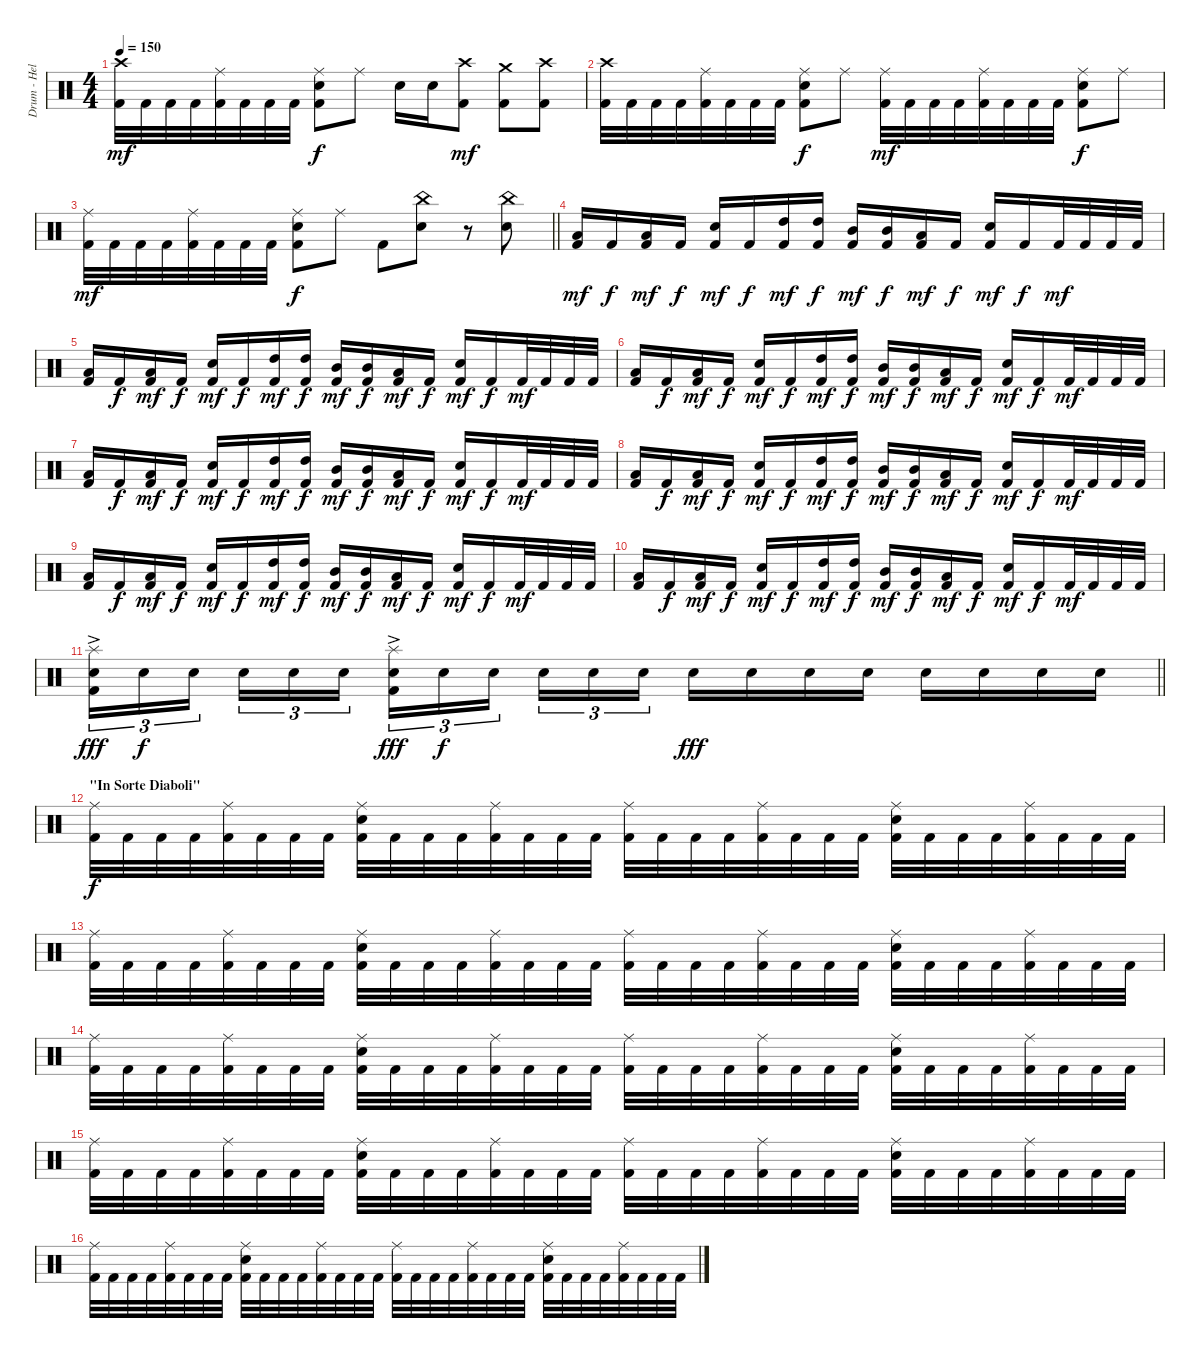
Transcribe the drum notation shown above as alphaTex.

\track ("Drum - Hellhammer" "Drum - Hel") {instrument percussion}
\staff {score}
\articulation defaults
\ts (4 4)
\tempo 150
\clef neutral
\ks c
("Crash high (hit)" "Kick (hit) 2").32{dy mf} "Kick (hit) 2".32 "Kick (hit) 2".32 "Kick (hit) 2".32 ("Ride (middle)" "Kick (hit) 2").32 "Kick (hit) 2".32 "Kick (hit) 2".32 "Kick (hit) 2".32 ("Ride (middle)" "Electric Snare (hit)" "Kick (hit) 2").8{dy f} "Ride (middle)".8 "Electric Snare (hit)".16 "Electric Snare (hit)".16 ("Crash high (hit)" "Kick (hit) 2").8{dy mf} ("Crash medium (hit)" "Kick (hit) 2").8 ("Crash high (hit)" "Kick (hit) 2").8 |
("Crash high (hit)" "Kick (hit) 2").32 "Kick (hit) 2".32 "Kick (hit) 2".32 "Kick (hit) 2".32 ("Ride (middle)" "Kick (hit) 2").32 "Kick (hit) 2".32 "Kick (hit) 2".32 "Kick (hit) 2".32 ("Ride (middle)" "Electric Snare (hit)" "Kick (hit) 2").8{dy f} "Ride (middle)".8 ("Ride (middle)" "Kick (hit) 2").32{dy mf} "Kick (hit) 2".32 "Kick (hit) 2".32 "Kick (hit) 2".32 ("Ride (middle)" "Kick (hit) 2").32 "Kick (hit) 2".32 "Kick (hit) 2".32 "Kick (hit) 2".32 ("Ride (middle)" "Electric Snare (hit)" "Kick (hit) 2").8{dy f} "Ride (middle)".8 |
\barLineRight lightlight
("Ride (middle)" "Kick (hit) 2").32{dy mf} "Kick (hit) 2".32 "Kick (hit) 2".32 "Kick (hit) 2".32 ("Ride (middle)" "Kick (hit) 2").32 "Kick (hit) 2".32 "Kick (hit) 2".32 "Kick (hit) 2".32 ("Ride (middle)" "Electric Snare (hit)" "Kick (hit) 2").8{dy f} "Ride (middle)".8 "Kick (hit) 2".8 ("China (hit)" "Electric Snare (hit)").8 r.8 ("China (hit)" "Electric Snare (hit)").8 |
\section ("" "")
("Low Tom (hit)" "Kick (hit) 2").16{dy mf} "Kick (hit) 2".16{dy f} ("Low Tom (hit)" "Kick (hit) 2").16{dy mf} "Kick (hit) 2".16{dy f} ("Electric Snare (hit)" "Kick (hit) 2").16{dy mf} "Kick (hit) 2".16{dy f} ("High Tom (hit)" "Kick (hit) 2").16{dy mf} ("High Tom (hit)" "Kick (hit) 2").16{dy f} ("Mid Tom (hit)" "Kick (hit) 2").16{dy mf} ("Mid Tom (hit)" "Kick (hit) 2").16{dy f} ("Low Tom (hit)" "Kick (hit) 2").16{dy mf} "Kick (hit) 2".16{dy f} ("Electric Snare (hit)" "Kick (hit) 2").16{dy mf} "Kick (hit) 2".16{dy f} "Kick (hit) 2".32{dy mf} "Kick (hit) 2".32 "Kick (hit) 2".32 "Kick (hit) 2".32 |
("Low Tom (hit)" "Kick (hit) 2").16 "Kick (hit) 2".16{dy f} ("Low Tom (hit)" "Kick (hit) 2").16{dy mf} "Kick (hit) 2".16{dy f} ("Electric Snare (hit)" "Kick (hit) 2").16{dy mf} "Kick (hit) 2".16{dy f} ("High Tom (hit)" "Kick (hit) 2").16{dy mf} ("High Tom (hit)" "Kick (hit) 2").16{dy f} ("Mid Tom (hit)" "Kick (hit) 2").16{dy mf} ("Mid Tom (hit)" "Kick (hit) 2").16{dy f} ("Low Tom (hit)" "Kick (hit) 2").16{dy mf} "Kick (hit) 2".16{dy f} ("Electric Snare (hit)" "Kick (hit) 2").16{dy mf} "Kick (hit) 2".16{dy f} "Kick (hit) 2".32{dy mf} "Kick (hit) 2".32 "Kick (hit) 2".32 "Kick (hit) 2".32 |
("Low Tom (hit)" "Kick (hit) 2").16 "Kick (hit) 2".16{dy f} ("Low Tom (hit)" "Kick (hit) 2").16{dy mf} "Kick (hit) 2".16{dy f} ("Electric Snare (hit)" "Kick (hit) 2").16{dy mf} "Kick (hit) 2".16{dy f} ("High Tom (hit)" "Kick (hit) 2").16{dy mf} ("High Tom (hit)" "Kick (hit) 2").16{dy f} ("Mid Tom (hit)" "Kick (hit) 2").16{dy mf} ("Mid Tom (hit)" "Kick (hit) 2").16{dy f} ("Low Tom (hit)" "Kick (hit) 2").16{dy mf} "Kick (hit) 2".16{dy f} ("Electric Snare (hit)" "Kick (hit) 2").16{dy mf} "Kick (hit) 2".16{dy f} "Kick (hit) 2".32{dy mf} "Kick (hit) 2".32 "Kick (hit) 2".32 "Kick (hit) 2".32 |
("Low Tom (hit)" "Kick (hit) 2").16 "Kick (hit) 2".16{dy f} ("Low Tom (hit)" "Kick (hit) 2").16{dy mf} "Kick (hit) 2".16{dy f} ("Electric Snare (hit)" "Kick (hit) 2").16{dy mf} "Kick (hit) 2".16{dy f} ("High Tom (hit)" "Kick (hit) 2").16{dy mf} ("High Tom (hit)" "Kick (hit) 2").16{dy f} ("Mid Tom (hit)" "Kick (hit) 2").16{dy mf} ("Mid Tom (hit)" "Kick (hit) 2").16{dy f} ("Low Tom (hit)" "Kick (hit) 2").16{dy mf} "Kick (hit) 2".16{dy f} ("Electric Snare (hit)" "Kick (hit) 2").16{dy mf} "Kick (hit) 2".16{dy f} "Kick (hit) 2".32{dy mf} "Kick (hit) 2".32 "Kick (hit) 2".32 "Kick (hit) 2".32 |
("Low Tom (hit)" "Kick (hit) 2").16 "Kick (hit) 2".16{dy f} ("Low Tom (hit)" "Kick (hit) 2").16{dy mf} "Kick (hit) 2".16{dy f} ("Electric Snare (hit)" "Kick (hit) 2").16{dy mf} "Kick (hit) 2".16{dy f} ("High Tom (hit)" "Kick (hit) 2").16{dy mf} ("High Tom (hit)" "Kick (hit) 2").16{dy f} ("Mid Tom (hit)" "Kick (hit) 2").16{dy mf} ("Mid Tom (hit)" "Kick (hit) 2").16{dy f} ("Low Tom (hit)" "Kick (hit) 2").16{dy mf} "Kick (hit) 2".16{dy f} ("Electric Snare (hit)" "Kick (hit) 2").16{dy mf} "Kick (hit) 2".16{dy f} "Kick (hit) 2".32{dy mf} "Kick (hit) 2".32 "Kick (hit) 2".32 "Kick (hit) 2".32 |
("Low Tom (hit)" "Kick (hit) 2").16 "Kick (hit) 2".16{dy f} ("Low Tom (hit)" "Kick (hit) 2").16{dy mf} "Kick (hit) 2".16{dy f} ("Electric Snare (hit)" "Kick (hit) 2").16{dy mf} "Kick (hit) 2".16{dy f} ("High Tom (hit)" "Kick (hit) 2").16{dy mf} ("High Tom (hit)" "Kick (hit) 2").16{dy f} ("Mid Tom (hit)" "Kick (hit) 2").16{dy mf} ("Mid Tom (hit)" "Kick (hit) 2").16{dy f} ("Low Tom (hit)" "Kick (hit) 2").16{dy mf} "Kick (hit) 2".16{dy f} ("Electric Snare (hit)" "Kick (hit) 2").16{dy mf} "Kick (hit) 2".16{dy f} "Kick (hit) 2".32{dy mf} "Kick (hit) 2".32 "Kick (hit) 2".32 "Kick (hit) 2".32 |
("Low Tom (hit)" "Kick (hit) 2").16 "Kick (hit) 2".16{dy f} ("Low Tom (hit)" "Kick (hit) 2").16{dy mf} "Kick (hit) 2".16{dy f} ("Electric Snare (hit)" "Kick (hit) 2").16{dy mf} "Kick (hit) 2".16{dy f} ("High Tom (hit)" "Kick (hit) 2").16{dy mf} ("High Tom (hit)" "Kick (hit) 2").16{dy f} ("Mid Tom (hit)" "Kick (hit) 2").16{dy mf} ("Mid Tom (hit)" "Kick (hit) 2").16{dy f} ("Low Tom (hit)" "Kick (hit) 2").16{dy mf} "Kick (hit) 2".16{dy f} ("Electric Snare (hit)" "Kick (hit) 2").16{dy mf} "Kick (hit) 2".16{dy f} "Kick (hit) 2".32{dy mf} "Kick (hit) 2".32 "Kick (hit) 2".32 "Kick (hit) 2".32 |
\barLineRight lightlight
("Splash (hit)" "Electric Snare (hit)"{ac} "Kick (hit) 2").16{tu (3 2) dy fff} "Electric Snare (hit)".16{tu (3 2) dy f} "Electric Snare (hit)".16{tu (3 2)} "Electric Snare (hit)".16{tu (3 2)} "Electric Snare (hit)".16{tu (3 2)} "Electric Snare (hit)".16{tu (3 2)} ("Splash (hit)" "Electric Snare (hit)"{ac} "Kick (hit) 2").16{tu (3 2) dy fff} "Electric Snare (hit)".16{tu (3 2) dy f} "Electric Snare (hit)".16{tu (3 2)} "Electric Snare (hit)".16{tu (3 2)} "Electric Snare (hit)".16{tu (3 2)} "Electric Snare (hit)".16{tu (3 2)} "Electric Snare (hit)".16{dy fff} "Electric Snare (hit)".16 "Electric Snare (hit)".16 "Electric Snare (hit)".16 "Electric Snare (hit)".16 "Electric Snare (hit)".16 "Electric Snare (hit)".16 "Electric Snare (hit)".16 |
\section ("" "\"In Sorte Diaboli\"")
("Ride (middle)" "Kick (hit) 2").32{dy f} "Kick (hit) 2".32 "Kick (hit) 2".32 "Kick (hit) 2".32 ("Ride (middle)" "Kick (hit) 2").32 "Kick (hit) 2".32 "Kick (hit) 2".32 "Kick (hit) 2".32 ("Ride (middle)" "Electric Snare (hit)" "Kick (hit) 2").32 "Kick (hit) 2".32 "Kick (hit) 2".32 "Kick (hit) 2".32 ("Ride (middle)" "Kick (hit) 2").32 "Kick (hit) 2".32 "Kick (hit) 2".32 "Kick (hit) 2".32 ("Ride (middle)" "Kick (hit) 2").32 "Kick (hit) 2".32 "Kick (hit) 2".32 "Kick (hit) 2".32 ("Ride (middle)" "Kick (hit) 2").32 "Kick (hit) 2".32 "Kick (hit) 2".32 "Kick (hit) 2".32 ("Ride (middle)" "Electric Snare (hit)" "Kick (hit) 2").32 "Kick (hit) 2".32 "Kick (hit) 2".32 "Kick (hit) 2".32 ("Ride (middle)" "Kick (hit) 2").32 "Kick (hit) 2".32 "Kick (hit) 2".32 "Kick (hit) 2".32 |
("Ride (middle)" "Kick (hit) 2").32 "Kick (hit) 2".32 "Kick (hit) 2".32 "Kick (hit) 2".32 ("Ride (middle)" "Kick (hit) 2").32 "Kick (hit) 2".32 "Kick (hit) 2".32 "Kick (hit) 2".32 ("Ride (middle)" "Electric Snare (hit)" "Kick (hit) 2").32 "Kick (hit) 2".32 "Kick (hit) 2".32 "Kick (hit) 2".32 ("Ride (middle)" "Kick (hit) 2").32 "Kick (hit) 2".32 "Kick (hit) 2".32 "Kick (hit) 2".32 ("Ride (middle)" "Kick (hit) 2").32 "Kick (hit) 2".32 "Kick (hit) 2".32 "Kick (hit) 2".32 ("Ride (middle)" "Kick (hit) 2").32 "Kick (hit) 2".32 "Kick (hit) 2".32 "Kick (hit) 2".32 ("Ride (middle)" "Electric Snare (hit)" "Kick (hit) 2").32 "Kick (hit) 2".32 "Kick (hit) 2".32 "Kick (hit) 2".32 ("Ride (middle)" "Kick (hit) 2").32 "Kick (hit) 2".32 "Kick (hit) 2".32 "Kick (hit) 2".32 |
("Ride (middle)" "Kick (hit) 2").32 "Kick (hit) 2".32 "Kick (hit) 2".32 "Kick (hit) 2".32 ("Ride (middle)" "Kick (hit) 2").32 "Kick (hit) 2".32 "Kick (hit) 2".32 "Kick (hit) 2".32 ("Ride (middle)" "Electric Snare (hit)" "Kick (hit) 2").32 "Kick (hit) 2".32 "Kick (hit) 2".32 "Kick (hit) 2".32 ("Ride (middle)" "Kick (hit) 2").32 "Kick (hit) 2".32 "Kick (hit) 2".32 "Kick (hit) 2".32 ("Ride (middle)" "Kick (hit) 2").32 "Kick (hit) 2".32 "Kick (hit) 2".32 "Kick (hit) 2".32 ("Ride (middle)" "Kick (hit) 2").32 "Kick (hit) 2".32 "Kick (hit) 2".32 "Kick (hit) 2".32 ("Ride (middle)" "Electric Snare (hit)" "Kick (hit) 2").32 "Kick (hit) 2".32 "Kick (hit) 2".32 "Kick (hit) 2".32 ("Ride (middle)" "Kick (hit) 2").32 "Kick (hit) 2".32 "Kick (hit) 2".32 "Kick (hit) 2".32 |
("Ride (middle)" "Kick (hit) 2").32 "Kick (hit) 2".32 "Kick (hit) 2".32 "Kick (hit) 2".32 ("Ride (middle)" "Kick (hit) 2").32 "Kick (hit) 2".32 "Kick (hit) 2".32 "Kick (hit) 2".32 ("Ride (middle)" "Electric Snare (hit)" "Kick (hit) 2").32 "Kick (hit) 2".32 "Kick (hit) 2".32 "Kick (hit) 2".32 ("Ride (middle)" "Kick (hit) 2").32 "Kick (hit) 2".32 "Kick (hit) 2".32 "Kick (hit) 2".32 ("Ride (middle)" "Kick (hit) 2").32 "Kick (hit) 2".32 "Kick (hit) 2".32 "Kick (hit) 2".32 ("Ride (middle)" "Kick (hit) 2").32 "Kick (hit) 2".32 "Kick (hit) 2".32 "Kick (hit) 2".32 ("Ride (middle)" "Electric Snare (hit)" "Kick (hit) 2").32 "Kick (hit) 2".32 "Kick (hit) 2".32 "Kick (hit) 2".32 ("Ride (middle)" "Kick (hit) 2").32 "Kick (hit) 2".32 "Kick (hit) 2".32 "Kick (hit) 2".32 |
("Ride (middle)" "Kick (hit) 2").32 "Kick (hit) 2".32 "Kick (hit) 2".32 "Kick (hit) 2".32 ("Ride (middle)" "Kick (hit) 2").32 "Kick (hit) 2".32 "Kick (hit) 2".32 "Kick (hit) 2".32 ("Ride (middle)" "Electric Snare (hit)" "Kick (hit) 2").32 "Kick (hit) 2".32 "Kick (hit) 2".32 "Kick (hit) 2".32 ("Ride (middle)" "Kick (hit) 2").32 "Kick (hit) 2".32 "Kick (hit) 2".32 "Kick (hit) 2".32 ("Ride (middle)" "Kick (hit) 2").32 "Kick (hit) 2".32 "Kick (hit) 2".32 "Kick (hit) 2".32 ("Ride (middle)" "Kick (hit) 2").32 "Kick (hit) 2".32 "Kick (hit) 2".32 "Kick (hit) 2".32 ("Ride (middle)" "Electric Snare (hit)" "Kick (hit) 2").32 "Kick (hit) 2".32 "Kick (hit) 2".32 "Kick (hit) 2".32 ("Ride (middle)" "Kick (hit) 2").32 "Kick (hit) 2".32 "Kick (hit) 2".32 "Kick (hit) 2".32
